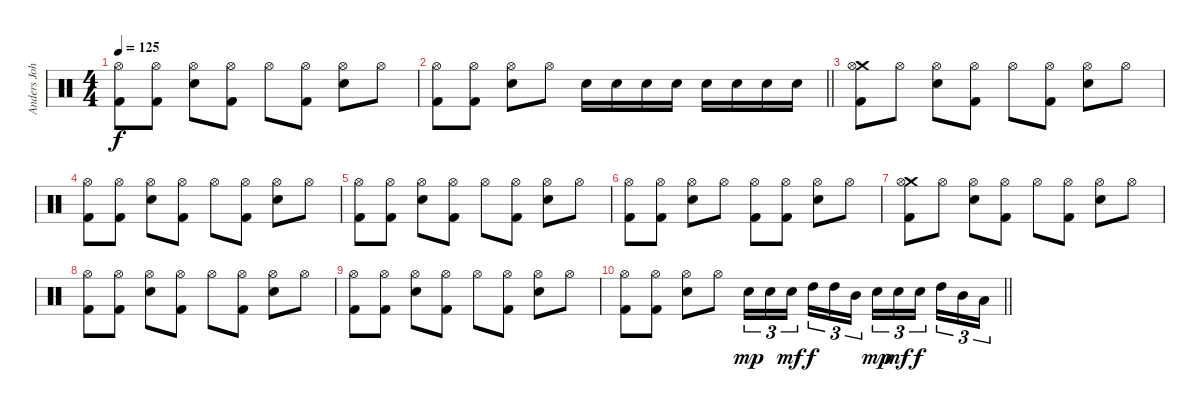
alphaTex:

\track ("Anders Johansson" "Anders Joh") {instrument percussion}
\staff {score}
\articulation defaults
\ts (4 4)
\tempo 125
\clef neutral
\ks c
("Hi-Hat (open)" "Kick (hit) 2").8{dy f} ("Hi-Hat (open)" "Kick (hit) 2").8 ("Hi-Hat (open)" "Snare (hit) 2").8 ("Hi-Hat (open)" "Kick (hit) 2").8 "Hi-Hat (open)".8 ("Hi-Hat (open)" "Kick (hit) 2").8 ("Hi-Hat (open)" "Snare (hit) 2").8 "Hi-Hat (open)".8 |
\barLineRight lightlight
("Hi-Hat (open)" "Kick (hit) 2").8 ("Hi-Hat (open)" "Kick (hit) 2").8 ("Hi-Hat (open)" "Snare (hit) 2").8 "Hi-Hat (open)".8 "Electric Snare (hit)".16 "Electric Snare (hit)".16 "Electric Snare (hit)".16 "Electric Snare (hit)".16 "Electric Snare (hit)".16 "Electric Snare (hit)".16 "Electric Snare (hit)".16 "Electric Snare (hit)".16 |
("Crash medium (hit)" "Hi-Hat (open)" "Kick (hit) 2").8 "Hi-Hat (open)".8 ("Hi-Hat (open)" "Snare (hit) 2").8 ("Hi-Hat (open)" "Kick (hit) 2").8 "Hi-Hat (open)".8 ("Hi-Hat (open)" "Kick (hit) 2").8 ("Hi-Hat (open)" "Snare (hit) 2").8 "Hi-Hat (open)".8 |
("Hi-Hat (open)" "Kick (hit) 2").8 ("Hi-Hat (open)" "Kick (hit) 2").8 ("Hi-Hat (open)" "Snare (hit) 2").8 ("Hi-Hat (open)" "Kick (hit) 2").8 "Hi-Hat (open)".8 ("Hi-Hat (open)" "Kick (hit) 2").8 ("Hi-Hat (open)" "Snare (hit) 2").8 "Hi-Hat (open)".8 |
("Hi-Hat (open)" "Kick (hit) 2").8 ("Hi-Hat (open)" "Kick (hit) 2").8 ("Hi-Hat (open)" "Snare (hit) 2").8 ("Hi-Hat (open)" "Kick (hit) 2").8 "Hi-Hat (open)".8 ("Hi-Hat (open)" "Kick (hit) 2").8 ("Hi-Hat (open)" "Snare (hit) 2").8 "Hi-Hat (open)".8 |
("Hi-Hat (open)" "Kick (hit) 2").8 ("Hi-Hat (open)" "Kick (hit) 2").8 ("Hi-Hat (open)" "Snare (hit) 2").8 "Hi-Hat (open)".8 ("Hi-Hat (open)" "Kick (hit) 2").8 ("Hi-Hat (open)" "Kick (hit) 2").8 ("Hi-Hat (open)" "Snare (hit) 2").8 "Hi-Hat (open)".8 |
("Crash medium (hit)" "Hi-Hat (open)" "Kick (hit) 2").8 "Hi-Hat (open)".8 ("Hi-Hat (open)" "Snare (hit) 2").8 ("Hi-Hat (open)" "Kick (hit) 2").8 "Hi-Hat (open)".8 ("Hi-Hat (open)" "Kick (hit) 2").8 ("Hi-Hat (open)" "Snare (hit) 2").8 "Hi-Hat (open)".8 |
("Hi-Hat (open)" "Kick (hit) 2").8 ("Hi-Hat (open)" "Kick (hit) 2").8 ("Hi-Hat (open)" "Snare (hit) 2").8 ("Hi-Hat (open)" "Kick (hit) 2").8 "Hi-Hat (open)".8 ("Hi-Hat (open)" "Kick (hit) 2").8 ("Hi-Hat (open)" "Snare (hit) 2").8 "Hi-Hat (open)".8 |
("Hi-Hat (open)" "Kick (hit) 2").8 ("Hi-Hat (open)" "Kick (hit) 2").8 ("Hi-Hat (open)" "Snare (hit) 2").8 ("Hi-Hat (open)" "Kick (hit) 2").8 "Hi-Hat (open)".8 ("Hi-Hat (open)" "Kick (hit) 2").8 ("Hi-Hat (open)" "Snare (hit) 2").8 "Hi-Hat (open)".8 |
\barLineRight lightlight
("Hi-Hat (open)" "Kick (hit) 2").8 ("Hi-Hat (open)" "Kick (hit) 2").8 ("Hi-Hat (open)" "Snare (hit) 2").8 "Hi-Hat (open)".8 "Electric Snare (hit)".16{tu (3 2) dy mp} "Electric Snare (hit)".16{tu (3 2)} "Electric Snare (hit)".16{tu (3 2) dy mf beam splitsecondary} "High Tom (hit)".16{tu (3 2) dy f} "High Tom (hit)".16{tu (3 2)} "Mid Tom (hit)".16{tu (3 2)} "Electric Snare (hit)".16{tu (3 2) dy mp} "Electric Snare (hit)".16{tu (3 2) dy mf} "Electric Snare (hit)".16{tu (3 2) dy f beam splitsecondary} "High Tom (hit)".16{tu (3 2)} "Mid Tom (hit)".16{tu (3 2)} "Low Tom (hit)".16{tu (3 2)}
